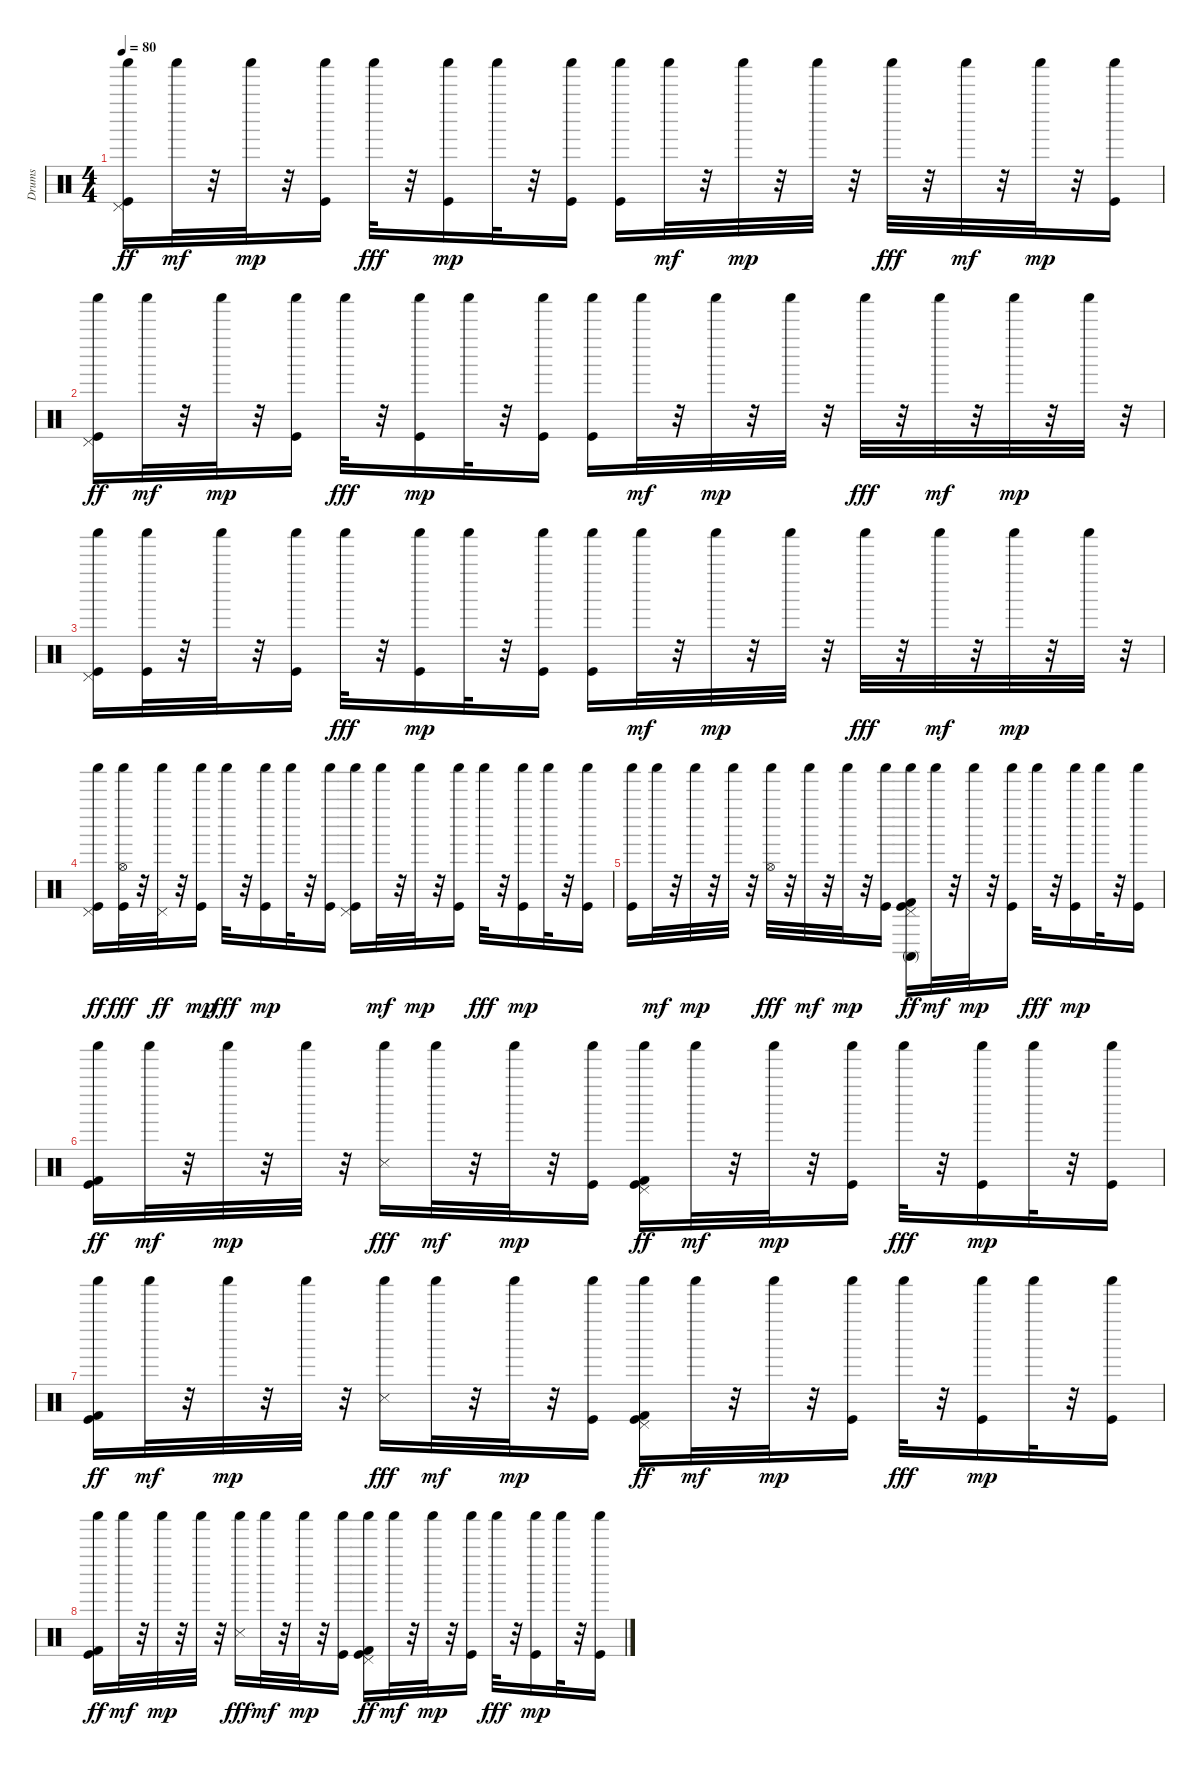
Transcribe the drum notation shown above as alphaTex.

\track ("Drums" "Drums") {instrument percussion}
\staff {score}
\articulation defaults
\ts (4 4)
\tempo 80
\clef neutral
\ks c
("Shaker (hit)" "Kick (hit)" "Pedal Hi-Hat (hit)").16{dy ff} "Shaker (hit)".32{dy mf} r.32 "Shaker (hit)".32{dy mp} r.32 ("Shaker (hit)" "Kick (hit)").16 "Shaker (hit)".32{dy fff} r.32 ("Shaker (hit)" "Kick (hit)").16{dy mp} "Shaker (hit)".32 r.32 ("Shaker (hit)" "Kick (hit)").16 ("Shaker (hit)" "Kick (hit)").16 "Shaker (hit)".32{dy mf} r.32 "Shaker (hit)".32{dy mp} r.32 "Shaker (hit)".32 r.32 "Shaker (hit)".32{dy fff} r.32 "Shaker (hit)".32{dy mf} r.32 "Shaker (hit)".32{dy mp} r.32 ("Shaker (hit)" "Kick (hit)").16 |
("Shaker (hit)" "Kick (hit)" "Pedal Hi-Hat (hit)").16{dy ff} "Shaker (hit)".32{dy mf} r.32 "Shaker (hit)".32{dy mp} r.32 ("Shaker (hit)" "Kick (hit)").16 "Shaker (hit)".32{dy fff} r.32 ("Shaker (hit)" "Kick (hit)").16{dy mp} "Shaker (hit)".32 r.32 ("Shaker (hit)" "Kick (hit)").16 ("Shaker (hit)" "Kick (hit)").16 "Shaker (hit)".32{dy mf} r.32 "Shaker (hit)".32{dy mp} r.32 "Shaker (hit)".32 r.32 "Shaker (hit)".32{dy fff} r.32 "Shaker (hit)".32{dy mf} r.32 "Shaker (hit)".32{dy mp} r.32 "Shaker (hit)".32 r.32 |
("Shaker (hit)" "Pedal Hi-Hat (hit)" "Kick (hit)").16 ("Shaker (hit)" "Kick (hit)").32 r.32 "Shaker (hit)".32 r.32 ("Shaker (hit)" "Kick (hit)").16 "Shaker (hit)".32{dy fff} r.32 ("Shaker (hit)" "Kick (hit)").16{dy mp} "Shaker (hit)".32 r.32 ("Shaker (hit)" "Kick (hit)").16 ("Shaker (hit)" "Kick (hit)").16 "Shaker (hit)".32{dy mf} r.32 "Shaker (hit)".32{dy mp} r.32 "Shaker (hit)".32 r.32 "Shaker (hit)".32{dy fff} r.32 "Shaker (hit)".32{dy mf} r.32 "Shaker (hit)".32{dy mp} r.32 "Shaker (hit)".32 r.32 |
("Shaker (hit)" "Kick (hit)" "Pedal Hi-Hat (hit)").16{dy ff} ("Shaker (hit)" "Kick (hit)" "Hi-Hat (open)").32{dy fff} r.32 ("Shaker (hit)" "Pedal Hi-Hat (hit)").32{dy ff} r.32 ("Shaker (hit)" "Kick (hit)").16{dy mp} "Shaker (hit)".32{dy fff} r.32 ("Shaker (hit)" "Kick (hit)").16{dy mp} "Shaker (hit)".32 r.32 ("Shaker (hit)" "Kick (hit)").16 ("Shaker (hit)" "Pedal Hi-Hat (hit)" "Kick (hit)").16 "Shaker (hit)".32{dy mf} r.32 "Shaker (hit)".32{dy mp} r.32 ("Shaker (hit)" "Kick (hit)").16 "Shaker (hit)".32{dy fff} r.32 ("Shaker (hit)" "Kick (hit)").16{dy mp} "Shaker (hit)".32 r.32 ("Shaker (hit)" "Kick (hit)").16 |
("Shaker (hit)" "Kick (hit)").16 "Shaker (hit)".32{dy mf} r.32 "Shaker (hit)".32{dy mp} r.32 "Shaker (hit)".32 r.32 ("Shaker (hit)" "Hi-Hat (open)").32{dy fff} r.32 "Shaker (hit)".32{dy mf} r.32 "Shaker (hit)".32{dy mp} r.32 ("Shaker (hit)" "Kick (hit)").16 ("Pedal Hi-Hat (hit)" "Conga high (mute)" "Shaker (hit)" "Kick (hit)" "Kick (hit) 2").16{dy ff} "Shaker (hit)".32{dy mf} r.32 "Shaker (hit)".32{dy mp} r.32 ("Shaker (hit)" "Kick (hit)").16 "Shaker (hit)".32{dy fff} r.32 ("Shaker (hit)" "Kick (hit)").16{dy mp} "Shaker (hit)".32 r.32 ("Shaker (hit)" "Kick (hit)").16 |
("Shaker (hit)" "Kick (hit)" "Kick (hit) 2").16{dy ff} "Shaker (hit)".32{dy mf} r.32 "Shaker (hit)".32{dy mp} r.32 "Shaker (hit)".32 r.32 ("Shaker (hit)" "Snare (side stick) 3").16{dy fff} "Shaker (hit)".32{dy mf} r.32 "Shaker (hit)".32{dy mp} r.32 ("Shaker (hit)" "Kick (hit)").16 ("Shaker (hit)" "Kick (hit)" "Kick (hit) 2" "Pedal Hi-Hat (hit)").16{dy ff} "Shaker (hit)".32{dy mf} r.32 "Shaker (hit)".32{dy mp} r.32 ("Shaker (hit)" "Kick (hit)").16 "Shaker (hit)".32{dy fff} r.32 ("Shaker (hit)" "Kick (hit)").16{dy mp} "Shaker (hit)".32 r.32 ("Shaker (hit)" "Kick (hit)").16 |
("Shaker (hit)" "Kick (hit)" "Kick (hit) 2").16{dy ff} "Shaker (hit)".32{dy mf} r.32 "Shaker (hit)".32{dy mp} r.32 "Shaker (hit)".32 r.32 ("Shaker (hit)" "Snare (side stick) 3").16{dy fff} "Shaker (hit)".32{dy mf} r.32 "Shaker (hit)".32{dy mp} r.32 ("Shaker (hit)" "Kick (hit)").16 ("Shaker (hit)" "Kick (hit)" "Kick (hit) 2" "Pedal Hi-Hat (hit)").16{dy ff} "Shaker (hit)".32{dy mf} r.32 "Shaker (hit)".32{dy mp} r.32 ("Shaker (hit)" "Kick (hit)").16 "Shaker (hit)".32{dy fff} r.32 ("Shaker (hit)" "Kick (hit)").16{dy mp} "Shaker (hit)".32 r.32 ("Shaker (hit)" "Kick (hit)").16 |
("Shaker (hit)" "Kick (hit)" "Kick (hit) 2").16{dy ff} "Shaker (hit)".32{dy mf} r.32 "Shaker (hit)".32{dy mp} r.32 "Shaker (hit)".32 r.32 ("Shaker (hit)" "Snare (side stick) 3").16{dy fff} "Shaker (hit)".32{dy mf} r.32 "Shaker (hit)".32{dy mp} r.32 ("Shaker (hit)" "Kick (hit)").16 ("Shaker (hit)" "Kick (hit)" "Kick (hit) 2" "Pedal Hi-Hat (hit)").16{dy ff} "Shaker (hit)".32{dy mf} r.32 "Shaker (hit)".32{dy mp} r.32 ("Shaker (hit)" "Kick (hit)").16 "Shaker (hit)".32{dy fff} r.32 ("Shaker (hit)" "Kick (hit)").16{dy mp} "Shaker (hit)".32 r.32 ("Shaker (hit)" "Kick (hit)").16
